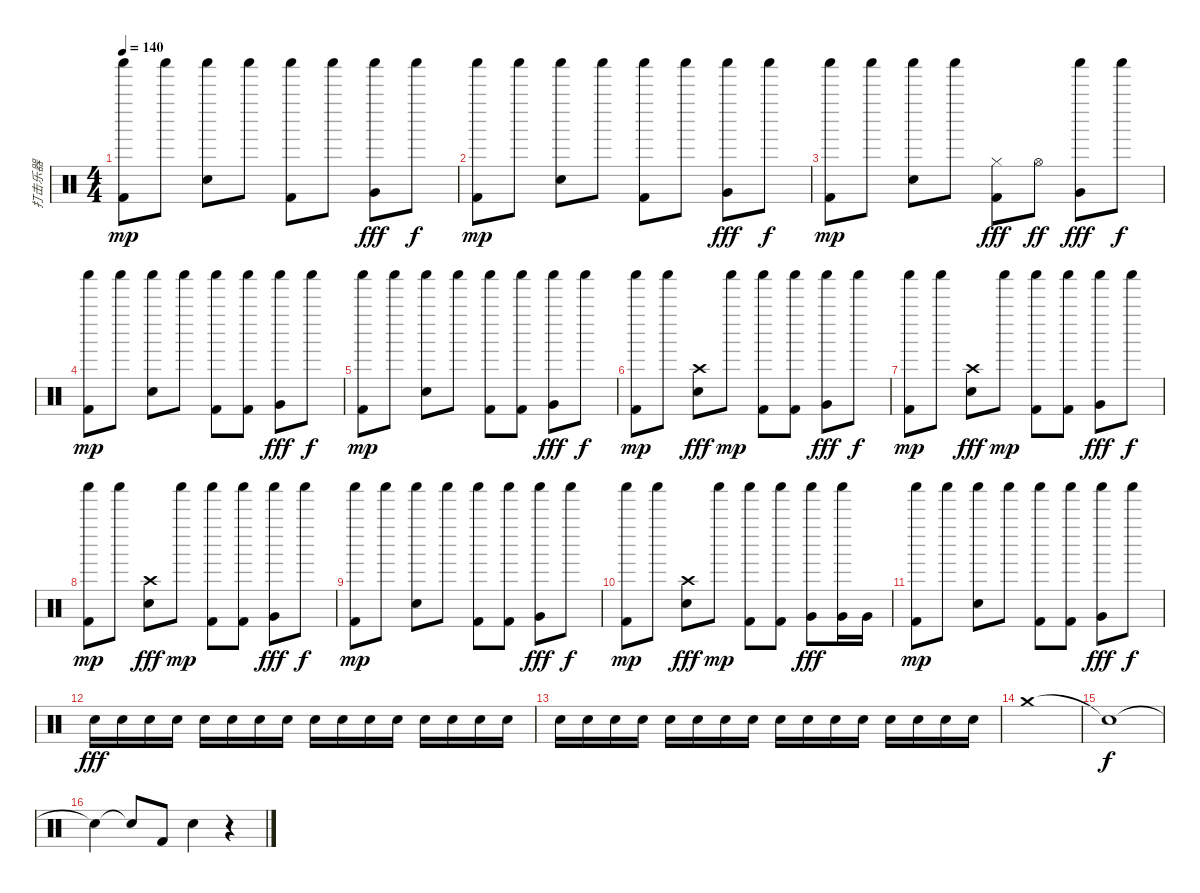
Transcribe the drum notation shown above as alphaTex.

\track ("打击乐器" "打击乐器") {instrument percussion}
\staff {score}
\articulation defaults
\ts (4 4)
\tempo 140
\clef neutral
\ks c
("Shaker (hit)" "Kick (hit) 2").8{dy mp} "Shaker (hit)".8 ("Shaker (hit)" "Electric Snare (hit)").8 "Shaker (hit)".8 ("Shaker (hit)" "Kick (hit) 2").8 "Shaker (hit)".8 ("Shaker (hit)" "Very Low Tom (hit)").8{dy fff} "Shaker (hit)".8{dy f} |
("Shaker (hit)" "Kick (hit) 2").8{dy mp} "Shaker (hit)".8 ("Shaker (hit)" "Electric Snare (hit)").8 "Shaker (hit)".8 ("Shaker (hit)" "Kick (hit) 2").8 "Shaker (hit)".8 ("Shaker (hit)" "Very Low Tom (hit)").8{dy fff} "Shaker (hit)".8{dy f} |
("Shaker (hit)" "Kick (hit) 2").8{dy mp} "Shaker (hit)".8 ("Shaker (hit)" "Electric Snare (hit)").8 "Shaker (hit)".8 ("Hi-Hat (closed)" "Kick (hit) 2").8{dy fff} "Hi-Hat (open)".8{dy ff} ("Shaker (hit)" "Very Low Tom (hit)").8{dy fff} "Shaker (hit)".8{dy f} |
("Shaker (hit)" "Kick (hit) 2").8{dy mp} "Shaker (hit)".8 ("Shaker (hit)" "Electric Snare (hit)").8 "Shaker (hit)".8 ("Shaker (hit)" "Kick (hit) 2").8 ("Shaker (hit)" "Kick (hit) 2").8 ("Shaker (hit)" "Very Low Tom (hit)").8{dy fff} "Shaker (hit)".8{dy f} |
("Shaker (hit)" "Kick (hit) 2").8{dy mp} "Shaker (hit)".8 ("Shaker (hit)" "Electric Snare (hit)").8 "Shaker (hit)".8 ("Shaker (hit)" "Kick (hit) 2").8 ("Shaker (hit)" "Kick (hit) 2").8 ("Shaker (hit)" "Very Low Tom (hit)").8{dy fff} "Shaker (hit)".8{dy f} |
("Shaker (hit)" "Kick (hit) 2").8{dy mp} "Shaker (hit)".8 ("Crash high (hit)" "Electric Snare (hit)").8{dy fff} "Shaker (hit)".8{dy mp} ("Shaker (hit)" "Kick (hit) 2").8 ("Shaker (hit)" "Kick (hit) 2").8 ("Shaker (hit)" "Very Low Tom (hit)").8{dy fff} "Shaker (hit)".8{dy f} |
("Shaker (hit)" "Kick (hit) 2").8{dy mp} "Shaker (hit)".8 ("Crash high (hit)" "Electric Snare (hit)").8{dy fff} "Shaker (hit)".8{dy mp} ("Shaker (hit)" "Kick (hit) 2").8 ("Shaker (hit)" "Kick (hit) 2").8 ("Shaker (hit)" "Very Low Tom (hit)").8{dy fff} "Shaker (hit)".8{dy f} |
("Shaker (hit)" "Kick (hit) 2").8{dy mp} "Shaker (hit)".8 ("Crash high (hit)" "Electric Snare (hit)").8{dy fff} "Shaker (hit)".8{dy mp} ("Shaker (hit)" "Kick (hit) 2").8 ("Shaker (hit)" "Kick (hit) 2").8 ("Shaker (hit)" "Very Low Tom (hit)").8{dy fff} "Shaker (hit)".8{dy f} |
("Shaker (hit)" "Kick (hit) 2").8{dy mp} "Shaker (hit)".8 ("Shaker (hit)" "Electric Snare (hit)").8 "Shaker (hit)".8 ("Shaker (hit)" "Kick (hit) 2").8 ("Shaker (hit)" "Kick (hit) 2").8 ("Shaker (hit)" "Very Low Tom (hit)").8{dy fff} "Shaker (hit)".8{dy f} |
("Shaker (hit)" "Kick (hit) 2").8{dy mp} "Shaker (hit)".8 ("Crash high (hit)" "Electric Snare (hit)").8{dy fff} "Shaker (hit)".8{dy mp} ("Shaker (hit)" "Kick (hit) 2").8 ("Shaker (hit)" "Kick (hit) 2").8 ("Shaker (hit)" "Very Low Tom (hit)").8{dy fff} ("Shaker (hit)" "Very Low Tom (hit)").16 "Very Low Tom (hit)".16 |
("Shaker (hit)" "Kick (hit) 2").8{dy mp} "Shaker (hit)".8 ("Shaker (hit)" "Electric Snare (hit)").8 "Shaker (hit)".8 ("Shaker (hit)" "Kick (hit) 2").8 ("Shaker (hit)" "Kick (hit) 2").8 ("Shaker (hit)" "Very Low Tom (hit)").8{dy fff} "Shaker (hit)".8{dy f} |
"Electric Snare (hit)".16{dy fff} "Electric Snare (hit)".16 "Electric Snare (hit)".16 "Electric Snare (hit)".16 "Electric Snare (hit)".16 "Electric Snare (hit)".16 "Electric Snare (hit)".16 "Electric Snare (hit)".16 "Electric Snare (hit)".16 "Electric Snare (hit)".16 "Electric Snare (hit)".16 "Electric Snare (hit)".16 "Electric Snare (hit)".16 "Electric Snare (hit)".16 "Electric Snare (hit)".16 "Electric Snare (hit)".16 |
"Electric Snare (hit)".16 "Electric Snare (hit)".16 "Electric Snare (hit)".16 "Electric Snare (hit)".16 "Electric Snare (hit)".16 "Electric Snare (hit)".16 "Electric Snare (hit)".16 "Electric Snare (hit)".16 "Electric Snare (hit)".16 "Electric Snare (hit)".16 "Electric Snare (hit)".16 "Electric Snare (hit)".16 "Electric Snare (hit)".16 "Electric Snare (hit)".16 "Electric Snare (hit)".16 "Electric Snare (hit)".16 |
"Crash medium (hit)".1 |
"Snare (hit)"{t}.1{dy f} |
"Snare (hit)"{t}.4 "Snare (hit)"{t}.8 "Kick (hit) 2".8 "Electric Snare (hit)".4 r.4
